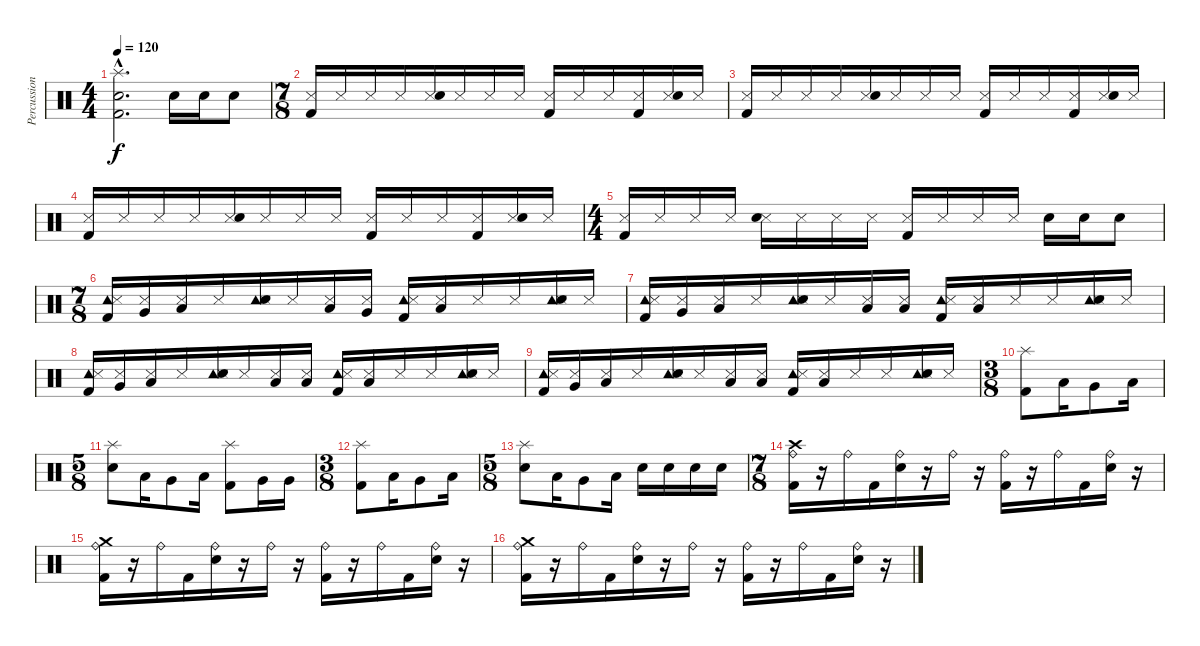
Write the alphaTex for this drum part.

\track ("Percussion" "Percussion") {instrument percussion}
\staff {score}
\articulation defaults
\ts (4 4)
\tempo 120
\clef neutral
\ks c
("Splash (hit)"{hac} "Electric Snare (hit)"{hac} "Kick (hit) 2"{hac}).2{d dy f} "Electric Snare (hit)".16 "Electric Snare (hit)".16 "Electric Snare (hit)".8 |
\ts (7 8)
("Metronome (hit)" "Kick (hit) 2").16 "Metronome (hit)".16 "Metronome (hit)".16 "Metronome (hit)".16 ("Metronome (hit)" "Electric Snare (hit)").16 "Metronome (hit)".16 "Metronome (hit)".16 "Metronome (hit)".16 ("Metronome (hit)" "Kick (hit) 2").16 "Metronome (hit)".16 "Metronome (hit)".16 ("Metronome (hit)" "Kick (hit) 2").16 ("Metronome (hit)" "Electric Snare (hit)").16 "Metronome (hit)".16 |
("Metronome (hit)" "Kick (hit) 2").16 "Metronome (hit)".16 "Metronome (hit)".16 "Metronome (hit)".16 ("Metronome (hit)" "Electric Snare (hit)").16 "Metronome (hit)".16 "Metronome (hit)".16 "Metronome (hit)".16 ("Metronome (hit)" "Kick (hit) 2").16 "Metronome (hit)".16 "Metronome (hit)".16 ("Metronome (hit)" "Kick (hit) 2").16 ("Metronome (hit)" "Electric Snare (hit)").16 "Metronome (hit)".16 |
("Metronome (hit)" "Kick (hit) 2").16 "Metronome (hit)".16 "Metronome (hit)".16 "Metronome (hit)".16 ("Metronome (hit)" "Electric Snare (hit)").16 "Metronome (hit)".16 "Metronome (hit)".16 "Metronome (hit)".16 ("Metronome (hit)" "Kick (hit) 2").16 "Metronome (hit)".16 "Metronome (hit)".16 ("Metronome (hit)" "Kick (hit) 2").16 ("Metronome (hit)" "Electric Snare (hit)").16 "Metronome (hit)".16 |
\ts (4 4)
("Metronome (hit)" "Kick (hit) 2").16 "Metronome (hit)".16 "Metronome (hit)".16 "Metronome (hit)".16 ("Metronome (hit)" "Electric Snare (hit)").16 "Metronome (hit)".16 "Metronome (hit)".16 "Metronome (hit)".16 ("Metronome (hit)" "Kick (hit) 2").16 "Metronome (hit)".16 "Metronome (hit)".16 "Metronome (hit)".16 "Electric Snare (hit)".16 "Electric Snare (hit)".16 "Electric Snare (hit)".8 |
\ts (7 8)
("Tambourine (hit)" "Metronome (hit)" "Kick (hit) 2").16 ("Metronome (hit)" "Very Low Tom (hit)").16 ("Metronome (hit)" "Low Tom (hit)").16 "Metronome (hit)".16 ("Tambourine (hit)" "Metronome (hit)" "Electric Snare (hit)").16 "Metronome (hit)".16 ("Metronome (hit)" "Low Tom (hit)").16 ("Metronome (hit)" "Very Low Tom (hit)").16 ("Tambourine (hit)" "Metronome (hit)" "Kick (hit) 2").16 ("Metronome (hit)" "Low Tom (hit)").16 "Metronome (hit)".16 "Metronome (hit)".16 ("Tambourine (hit)" "Metronome (hit)" "Electric Snare (hit)").16 "Metronome (hit)".16 |
("Tambourine (hit)" "Metronome (hit)" "Kick (hit) 2").16 ("Metronome (hit)" "Very Low Tom (hit)").16 ("Metronome (hit)" "Low Tom (hit)").16 "Metronome (hit)".16 ("Tambourine (hit)" "Metronome (hit)" "Electric Snare (hit)").16 "Metronome (hit)".16 ("Metronome (hit)" "Low Tom (hit)").16 ("Metronome (hit)" "Low Tom (hit)").16 ("Tambourine (hit)" "Metronome (hit)" "Kick (hit) 2").16 ("Metronome (hit)" "Low Tom (hit)").16 "Metronome (hit)".16 "Metronome (hit)".16 ("Tambourine (hit)" "Metronome (hit)" "Electric Snare (hit)").16 "Metronome (hit)".16 |
("Tambourine (hit)" "Metronome (hit)" "Kick (hit) 2").16 ("Metronome (hit)" "Very Low Tom (hit)").16 ("Metronome (hit)" "Low Tom (hit)").16 "Metronome (hit)".16 ("Tambourine (hit)" "Metronome (hit)" "Electric Snare (hit)").16 "Metronome (hit)".16 ("Metronome (hit)" "Low Tom (hit)").16 ("Metronome (hit)" "Low Tom (hit)").16 ("Tambourine (hit)" "Metronome (hit)" "Kick (hit) 2").16 ("Metronome (hit)" "Low Tom (hit)").16 "Metronome (hit)".16 "Metronome (hit)".16 ("Tambourine (hit)" "Metronome (hit)" "Electric Snare (hit)").16 "Metronome (hit)".16 |
("Tambourine (hit)" "Metronome (hit)" "Kick (hit) 2").16 ("Metronome (hit)" "Very Low Tom (hit)").16 ("Metronome (hit)" "Low Tom (hit)").16 "Metronome (hit)".16 ("Tambourine (hit)" "Metronome (hit)" "Electric Snare (hit)").16 "Metronome (hit)".16 ("Metronome (hit)" "Low Tom (hit)").16 ("Metronome (hit)" "Low Tom (hit)").16 ("Tambourine (hit)" "Metronome (hit)" "Kick (hit) 2").16 ("Metronome (hit)" "Low Tom (hit)").16 "Metronome (hit)".16 "Metronome (hit)".16 ("Tambourine (hit)" "Metronome (hit)" "Electric Snare (hit)").16 "Metronome (hit)".16 |
\ts (3 8)
("Splash (hit)" "Kick (hit) 2").8 "Low Tom (hit)".16 "Very Low Tom (hit)".8 "Low Tom (hit)".16 |
\ts (5 8)
("Splash (hit)" "Electric Snare (hit)").8 "Low Tom (hit)".16 "Very Low Tom (hit)".8 "Low Tom (hit)".16 ("Splash (hit)" "Kick (hit) 2").8 "Very Low Tom (hit)".16 "Very Low Tom (hit)".16 |
\ts (3 8)
("Splash (hit)" "Kick (hit) 2").8 "Low Tom (hit)".16 "Very Low Tom (hit)".8 "Low Tom (hit)".16 |
\ts (5 8)
("Splash (hit)" "Electric Snare (hit)").8 "Low Tom (hit)".16 "Very Low Tom (hit)".8 "Low Tom (hit)".16 "Electric Snare (hit)".16 "Electric Snare (hit)".16 "Electric Snare (hit)".16 "Electric Snare (hit)".16 |
\ts (7 8)
("Crash high (hit)" "Ride (bell)" "Kick (hit) 2").16 r.16 "Ride (bell)".16 "Kick (hit) 2".16 ("Ride (bell)" "Electric Snare (hit)").16 r.16 "Ride (bell)".16 r.16 ("Ride (bell)" "Kick (hit) 2").16 r.16 "Ride (bell)".16 "Kick (hit) 2".16 ("Ride (bell)" "Electric Snare (hit)").16 r.16 |
("Crash medium (hit)" "Ride (bell)" "Kick (hit) 2").16 r.16 "Ride (bell)".16 "Kick (hit) 2".16 ("Ride (bell)" "Electric Snare (hit)").16 r.16 "Ride (bell)".16 r.16 ("Ride (bell)" "Kick (hit) 2").16 r.16 "Ride (bell)".16 "Kick (hit) 2".16 ("Ride (bell)" "Electric Snare (hit)").16 r.16 |
("Crash medium (hit)" "Ride (bell)" "Kick (hit) 2").16 r.16 "Ride (bell)".16 "Kick (hit) 2".16 ("Ride (bell)" "Electric Snare (hit)").16 r.16 "Ride (bell)".16 r.16 ("Ride (bell)" "Kick (hit) 2").16 r.16 "Ride (bell)".16 "Kick (hit) 2".16 ("Ride (bell)" "Electric Snare (hit)").16 r.16
